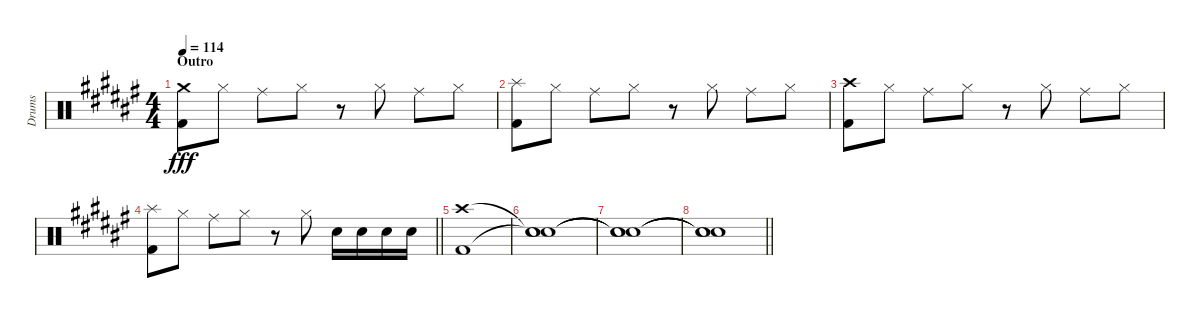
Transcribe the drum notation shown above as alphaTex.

\track ("Drums" "Drums") {instrument percussion}
\staff {score}
\articulation defaults
\ts (4 4)
\section ("" "Outro")
\tempo 114
\clef neutral
\ks f#
("Crash medium (hit)" "Kick (hit) 2").8{dy fff} "Hi-Hat (closed)".8 "Ride (middle)".8 "Hi-Hat (closed)".8 r.8 "Hi-Hat (closed)".8 "Ride (middle)".8 "Hi-Hat (closed)".8 |
("Splash (hit)" "Kick (hit) 2").8 "Hi-Hat (closed)".8 "Ride (middle)".8 "Hi-Hat (closed)".8 r.8 "Hi-Hat (closed)".8 "Ride (middle)".8 "Hi-Hat (closed)".8 |
("Crash high (hit)" "Kick (hit) 2").8 "Hi-Hat (closed)".8 "Ride (middle)".8 "Hi-Hat (closed)".8 r.8 "Hi-Hat (closed)".8 "Ride (middle)".8 "Hi-Hat (closed)".8 |
\barLineRight lightlight
("Splash (hit)" "Kick (hit) 2").8 "Hi-Hat (closed)".8 "Ride (middle)".8 "Hi-Hat (closed)".8 r.8 "Hi-Hat (closed)".8 "Electric Snare (hit)".16 "Electric Snare (hit)".16 "Electric Snare (hit)".16 "Electric Snare (hit)".16 |
("Crash high (hit)" "Kick (hit) 2").1 |
("Snare (hit)"{t} "Snare (hit)"{t} "Snare (hit)").1 |
("Snare (hit)"{t} "Snare (hit)"{t} "Snare (hit)"{t}).1 |
\barLineRight lightlight
("Snare (hit)"{t} "Snare (hit)"{t} "Snare (hit)"{t}).1
